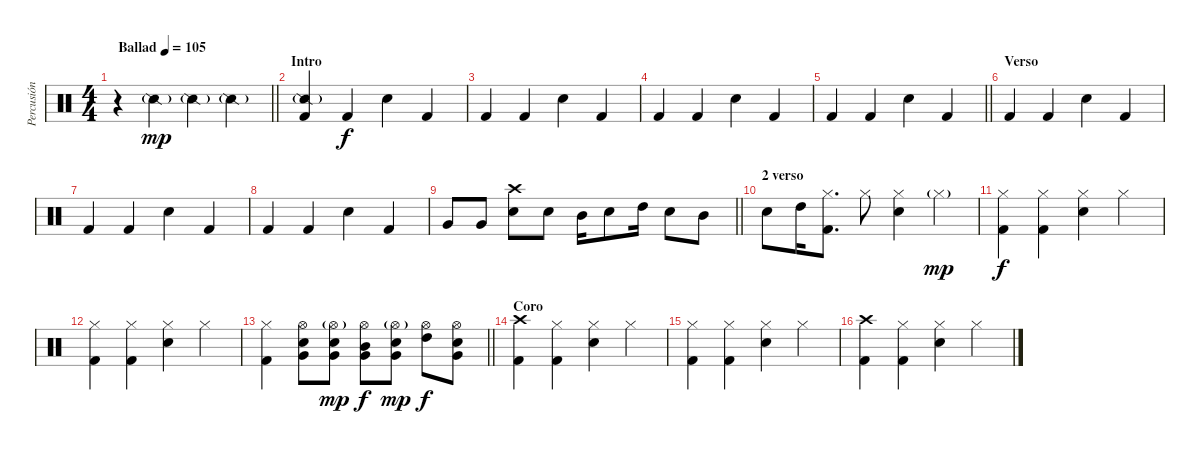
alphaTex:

\track ("Percusión" "Percusión") {instrument percussion}
\staff {score}
\articulation defaults
\ts (4 4)
\tempo (105 "Ballad")
\clef neutral
\barLineRight lightlight
\ks c
r.4{dy mp} "Snare (side stick) 2"{g}.4 "Snare (side stick) 2"{g}.4 "Snare (side stick) 2"{g}.4 |
\section ("" "Intro")
("Kick (hit) 2" "Snare (side stick) 2"{g}).4{volume 8} "Kick (hit) 2".4{dy f} "Snare (hit) 2".4 "Kick (hit) 2".4 |
"Kick (hit) 2".4 "Kick (hit) 2".4 "Snare (hit) 2".4 "Kick (hit) 2".4 |
"Kick (hit) 2".4 "Kick (hit) 2".4 "Snare (hit) 2".4 "Kick (hit) 2".4 |
\barLineRight lightlight "Kick (hit) 2".4 "Kick (hit) 2".4 "Snare (hit) 2".4 "Kick (hit) 2".4
|
\section ("" "Verso")
"Kick (hit) 2".4 "Kick (hit) 2".4 "Snare (hit) 2".4 "Kick (hit) 2".4 |
"Kick (hit) 2".4 "Kick (hit) 2".4 "Snare (hit) 2".4 "Kick (hit) 2".4 |
"Kick (hit) 2".4 "Kick (hit) 2".4 "Snare (hit) 2".4 "Kick (hit) 2".4 |
\barLineRight lightlight "Very Low Tom (hit)".8{volume 16} "Very Low Tom (hit)".8
("Snare (hit) 2" "Crash high (hit)").8 "Snare (hit) 2".8 "Mid Tom (hit)".16 "Snare (hit) 2".8 "High Tom (hit)".16 "Snare (hit) 2".8 "Mid Tom (hit)".8 |
\section ("" "2 verso")
"Snare (hit) 2".8 "High Tom (hit)".16 ("Kick (hit) 2" "Hi-Hat (closed)").8{d} "Hi-Hat (closed)".8 ("Snare (hit) 2" "Hi-Hat (closed)").4{volume 13} "Hi-Hat (closed)"{g}.4{dy mp} |
("Kick (hit) 2" "Hi-Hat (closed)").4{dy f} ("Kick (hit) 2" "Hi-Hat (closed)").4 ("Snare (hit) 2" "Hi-Hat (closed)").4 "Hi-Hat (closed)".4 |
("Kick (hit) 2" "Hi-Hat (closed)").4 ("Kick (hit) 2" "Hi-Hat (closed)").4 ("Snare (hit) 2" "Hi-Hat (closed)").4 "Hi-Hat (closed)".4 |
\barLineRight lightlight
("Kick (hit) 2" "Hi-Hat (closed)").4 ("Very Low Tom (hit)" "Snare (hit) 2" "Hi-Hat (open)").8 ("Very Low Tom (hit)" "Snare (hit) 2" "Hi-Hat (open)"{g}).8{dy mp} ("Very Low Tom (hit)" "Mid Tom (hit)" "Hi-Hat (open)").8{dy f} ("Very Low Tom (hit)" "Snare (hit) 2" "Hi-Hat (open)"{g}).8{dy mp} ("High Tom (hit)" "Hi-Hat (open)").8{dy f} ("Very Low Tom (hit)" "Snare (hit) 2" "Hi-Hat (open)").8 |
\section ("" "Coro")
("Kick (hit) 2" "Crash high (hit)").4 ("Kick (hit) 2" "Hi-Hat (closed)").4 ("Snare (hit) 2" "Hi-Hat (closed)").4 "Hi-Hat (closed)".4 |
("Kick (hit) 2" "Hi-Hat (closed)").4 ("Kick (hit) 2" "Hi-Hat (closed)").4 ("Snare (hit) 2" "Hi-Hat (closed)").4 "Hi-Hat (closed)".4 |
("Kick (hit) 2" "Crash high (hit)").4 ("Kick (hit) 2" "Hi-Hat (closed)").4 ("Snare (hit) 2" "Hi-Hat (closed)").4 "Hi-Hat (closed)".4
